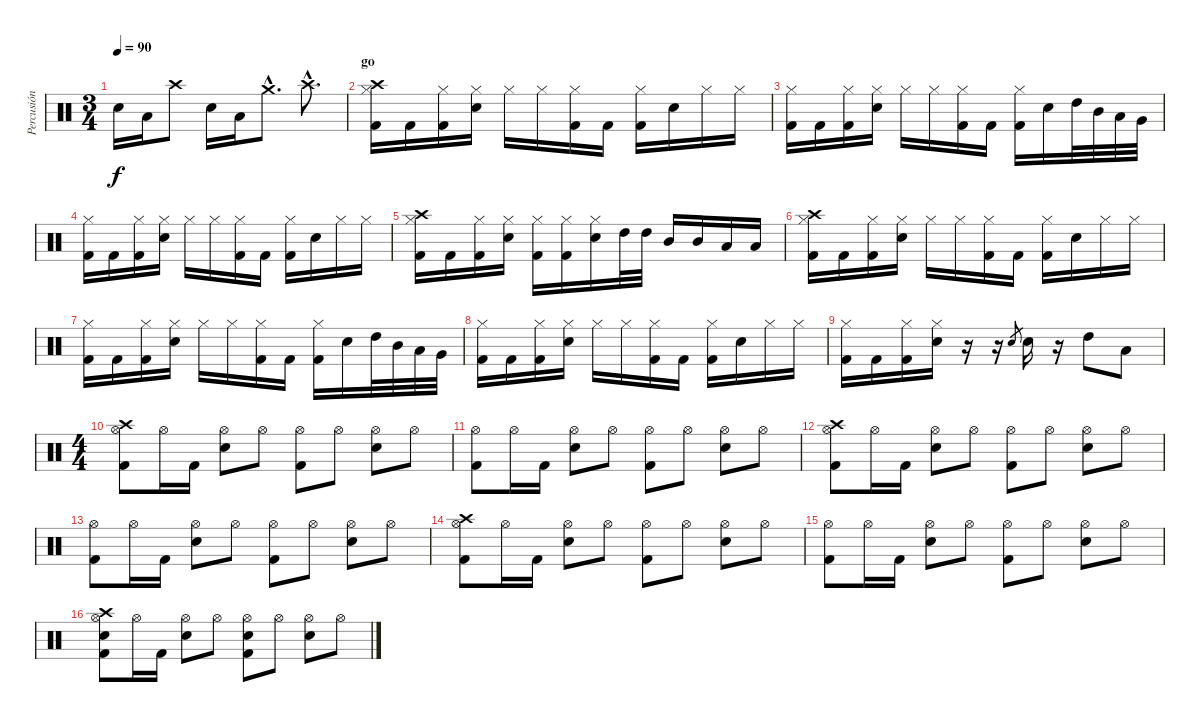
\track ("Percusión" "Percusión") {instrument percussion}
\staff {score}
\articulation defaults
\ts (3 4)
\tempo 90
\clef neutral
\ks c "Electric Snare (hit)".16{dy f} "Low Tom (hit)".16 "Crash high (hit)".8 "Electric Snare (hit)".16 "Low Tom (hit)".16 "Crash medium (hit)"{hac}.8{d} "Crash high (hit)"{hac}.8{d}
|
\section ("" "go")
("Crash high (hit)" "Hi-Hat (closed)" "Kick (hit) 2").16 "Kick (hit) 2".16 ("Hi-Hat (closed)" "Kick (hit) 2").16 ("Hi-Hat (closed)" "Electric Snare (hit)").16 "Hi-Hat (closed)".16 "Hi-Hat (closed)".16 ("Hi-Hat (closed)" "Kick (hit) 2").16 "Kick (hit) 2".16 ("Hi-Hat (closed)" "Kick (hit) 2").16 "Electric Snare (hit)".16 "Hi-Hat (closed)".16 "Hi-Hat (closed)".16 |
("Hi-Hat (closed)" "Kick (hit) 2").16 "Kick (hit) 2".16 ("Hi-Hat (closed)" "Kick (hit) 2").16 ("Hi-Hat (closed)" "Electric Snare (hit)").16 "Hi-Hat (closed)".16 "Hi-Hat (closed)".16 ("Hi-Hat (closed)" "Kick (hit) 2").16 "Kick (hit) 2".16 ("Hi-Hat (closed)" "Kick (hit) 2").16 "Electric Snare (hit)".16 "High Tom (hit)".32 "Mid Tom (hit)".32 "Low Tom (hit)".32 "Very Low Tom (hit)".32 |
("Hi-Hat (closed)" "Kick (hit) 2").16 "Kick (hit) 2".16 ("Hi-Hat (closed)" "Kick (hit) 2").16 ("Hi-Hat (closed)" "Electric Snare (hit)").16 "Hi-Hat (closed)".16 "Hi-Hat (closed)".16 ("Hi-Hat (closed)" "Kick (hit) 2").16 "Kick (hit) 2".16 ("Hi-Hat (closed)" "Kick (hit) 2").16 "Electric Snare (hit)".16 "Hi-Hat (closed)".16 "Hi-Hat (closed)".16 |
("Crash high (hit)" "Hi-Hat (closed)" "Kick (hit) 2").16 "Kick (hit) 2".16 ("Hi-Hat (closed)" "Kick (hit) 2").16 ("Hi-Hat (closed)" "Electric Snare (hit)").16 ("Hi-Hat (closed)" "Kick (hit) 2").16 ("Hi-Hat (closed)" "Kick (hit) 2").16 ("Hi-Hat (closed)" "Electric Snare (hit)").16 "High Tom (hit)".32 "High Tom (hit)".32 "Mid Tom (hit)".16 "Mid Tom (hit)".16 "Low Tom (hit)".16 "Low Tom (hit)".16 |
("Crash high (hit)" "Hi-Hat (closed)" "Kick (hit) 2").16 "Kick (hit) 2".16 ("Hi-Hat (closed)" "Kick (hit) 2").16 ("Hi-Hat (closed)" "Electric Snare (hit)").16 "Hi-Hat (closed)".16 "Hi-Hat (closed)".16 ("Hi-Hat (closed)" "Kick (hit) 2").16 "Kick (hit) 2".16 ("Hi-Hat (closed)" "Kick (hit) 2").16 "Electric Snare (hit)".16 "Hi-Hat (closed)".16 "Hi-Hat (closed)".16 |
("Hi-Hat (closed)" "Kick (hit) 2").16 "Kick (hit) 2".16 ("Hi-Hat (closed)" "Kick (hit) 2").16 ("Hi-Hat (closed)" "Electric Snare (hit)").16 "Hi-Hat (closed)".16 "Hi-Hat (closed)".16 ("Hi-Hat (closed)" "Kick (hit) 2").16 "Kick (hit) 2".16 ("Hi-Hat (closed)" "Kick (hit) 2").16 "Electric Snare (hit)".16 "High Tom (hit)".32 "Mid Tom (hit)".32 "Low Tom (hit)".32 "Very Low Tom (hit)".32 |
("Hi-Hat (closed)" "Kick (hit) 2").16 "Kick (hit) 2".16 ("Hi-Hat (closed)" "Kick (hit) 2").16 ("Hi-Hat (closed)" "Electric Snare (hit)").16 "Hi-Hat (closed)".16 "Hi-Hat (closed)".16 ("Hi-Hat (closed)" "Kick (hit) 2").16 "Kick (hit) 2".16 ("Hi-Hat (closed)" "Kick (hit) 2").16 "Electric Snare (hit)".16 "Hi-Hat (closed)".16 "Hi-Hat (closed)".16 |
("Hi-Hat (closed)" "Kick (hit) 2").16 "Kick (hit) 2".16 ("Hi-Hat (closed)" "Kick (hit) 2").16 ("Hi-Hat (closed)" "Electric Snare (hit)").16 r.16 r.16 "Electric Snare (hit)"{h}.8{gr} "Electric Snare (hit)".16 r.16 "High Tom (hit)".8 "Low Tom (hit)".8 |
\ts (4 4)
("Crash high (hit)" "Hi-Hat (open)" "Kick (hit) 2").8 "Hi-Hat (open)".16 "Kick (hit) 2".16 ("Hi-Hat (open)" "Electric Snare (hit)").8 "Hi-Hat (open)".8 ("Hi-Hat (open)" "Kick (hit) 2").8 "Hi-Hat (open)".8 ("Hi-Hat (open)" "Electric Snare (hit)").8 "Hi-Hat (open)".8 |
("Hi-Hat (open)" "Kick (hit) 2").8 "Hi-Hat (open)".16 "Kick (hit) 2".16 ("Hi-Hat (open)" "Electric Snare (hit)").8 "Hi-Hat (open)".8 ("Hi-Hat (open)" "Kick (hit) 2").8 "Hi-Hat (open)".8 ("Hi-Hat (open)" "Electric Snare (hit)").8 "Hi-Hat (open)".8 |
("Crash high (hit)" "Hi-Hat (open)" "Kick (hit) 2").8 "Hi-Hat (open)".16 "Kick (hit) 2".16 ("Hi-Hat (open)" "Electric Snare (hit)").8 "Hi-Hat (open)".8 ("Hi-Hat (open)" "Kick (hit) 2").8 "Hi-Hat (open)".8 ("Hi-Hat (open)" "Electric Snare (hit)").8 "Hi-Hat (open)".8 |
("Hi-Hat (open)" "Kick (hit) 2").8 "Hi-Hat (open)".16 "Kick (hit) 2".16 ("Hi-Hat (open)" "Electric Snare (hit)").8 "Hi-Hat (open)".8 ("Hi-Hat (open)" "Kick (hit) 2").8 "Hi-Hat (open)".8 ("Hi-Hat (open)" "Electric Snare (hit)").8 "Hi-Hat (open)".8 |
("Crash high (hit)" "Hi-Hat (open)" "Kick (hit) 2").8 "Hi-Hat (open)".16 "Kick (hit) 2".16 ("Hi-Hat (open)" "Electric Snare (hit)").8 "Hi-Hat (open)".8 ("Hi-Hat (open)" "Kick (hit) 2").8 "Hi-Hat (open)".8 ("Hi-Hat (open)" "Electric Snare (hit)").8 "Hi-Hat (open)".8 |
("Hi-Hat (open)" "Kick (hit) 2").8 "Hi-Hat (open)".16 "Kick (hit) 2".16 ("Hi-Hat (open)" "Electric Snare (hit)").8 "Hi-Hat (open)".8 ("Hi-Hat (open)" "Kick (hit) 2").8 "Hi-Hat (open)".8 ("Hi-Hat (open)" "Electric Snare (hit)").8 "Hi-Hat (open)".8 |
("Crash high (hit)" "Hi-Hat (open)" "Electric Snare (hit)" "Kick (hit) 2").8 "Hi-Hat (open)".16 "Kick (hit) 2".16 ("Hi-Hat (open)" "Electric Snare (hit)").8 "Hi-Hat (open)".8 ("Hi-Hat (open)" "Electric Snare (hit)" "Kick (hit) 2").8 "Hi-Hat (open)".8 ("Hi-Hat (open)" "Electric Snare (hit)").8 "Hi-Hat (open)".8
